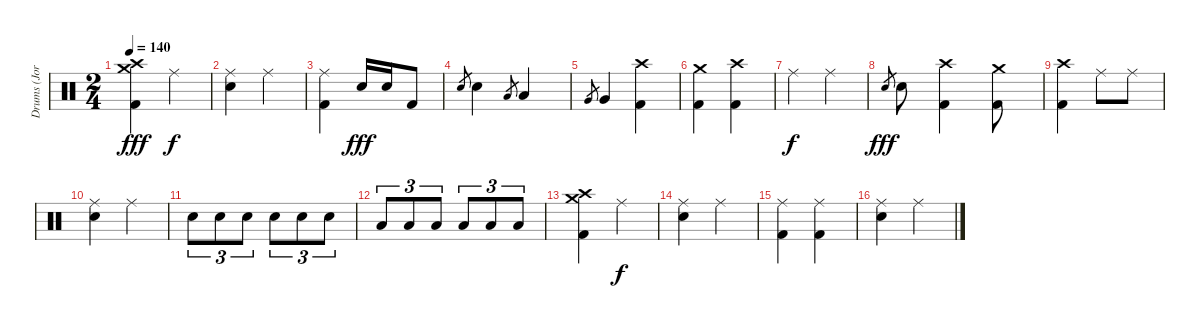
\track ("Drums (Jordan Hastings)" "Drums (Jor") {instrument percussion}
\staff {score}
\articulation defaults
\ts (2 4)
\tempo 140
\clef neutral
\ks c
("Crash medium (hit)" "Crash high (hit)" "Kick (hit) 2").4{dy fff} "Ride (middle)".4{dy f} |
("Ride (middle)" "Electric Snare (hit)").4 "Ride (middle)".4 |
("Ride (middle)" "Kick (hit) 2").4 "Electric Snare (hit)".16{dy fff} "Electric Snare (hit)".16 "Kick (hit) 2".8 |
"Electric Snare (hit)".8{gr} "Electric Snare (hit)".4 "Low Tom (hit)".8{gr} "Low Tom (hit)".4 |
"Very Low Tom (hit)".8{gr} "Very Low Tom (hit)".4 ("Crash high (hit)" "Kick (hit) 2").4 |
("Crash medium (hit)" "Kick (hit) 2").4 ("Crash high (hit)" "Kick (hit) 2").4 |
"Ride (middle)".4{dy f} "Ride (middle)".4 |
"Electric Snare (hit)".8{gr dy fff} "Electric Snare (hit)".8 ("Crash high (hit)" "Kick (hit) 2").4 ("Crash medium (hit)" "Kick (hit) 2").8 |
("Crash high (hit)" "Kick (hit) 2").4 "Ride (middle)".8 "Ride (middle)".8 |
("Ride (middle)" "Electric Snare (hit)").4 "Ride (middle)".4 |
"Electric Snare (hit)".8{tu (3 2)} "Electric Snare (hit)".8{tu (3 2)} "Electric Snare (hit)".8{tu (3 2)} "Electric Snare (hit)".8{tu (3 2)} "Electric Snare (hit)".8{tu (3 2)} "Electric Snare (hit)".8{tu (3 2)} |
"Low Tom (hit)".8{tu (3 2)} "Low Tom (hit)".8{tu (3 2)} "Low Tom (hit)".8{tu (3 2)} "Low Tom (hit)".8{tu (3 2)} "Low Tom (hit)".8{tu (3 2)} "Low Tom (hit)".8{tu (3 2)} |
("Crash medium (hit)" "Crash high (hit)" "Kick (hit) 2").4 "Ride (middle)".4{dy f} |
("Ride (middle)" "Electric Snare (hit)").4 "Ride (middle)".4 |
("Ride (middle)" "Kick (hit) 2").4 ("Ride (middle)" "Kick (hit) 2").4 |
("Ride (middle)" "Electric Snare (hit)").4 "Ride (middle)".4
